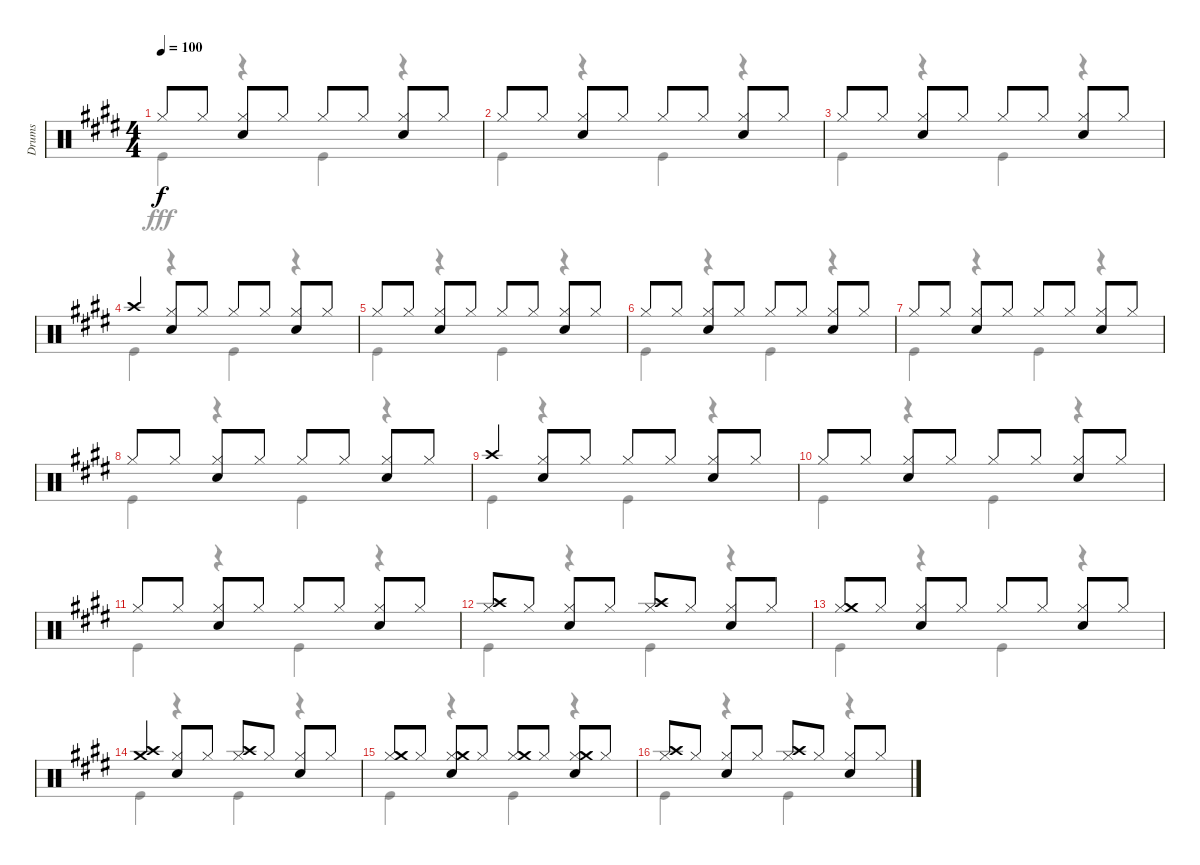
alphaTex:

\track ("Drums" "Drums") {instrument percussion}
\staff {score}
\articulation defaults
\voice
\ts (4 4)
\tempo 100
\clef neutral
\ks e "Hi-Hat (closed)".8{dy f} "Hi-Hat (closed)".8
("Hi-Hat (closed)" "Snare (hit) 2").8 "Hi-Hat (closed)".8 "Hi-Hat (closed)".8 "Hi-Hat (closed)".8 ("Hi-Hat (closed)" "Snare (hit) 2").8 "Hi-Hat (closed)".8 |
"Hi-Hat (closed)".8 "Hi-Hat (closed)".8 ("Hi-Hat (closed)" "Snare (hit) 2").8 "Hi-Hat (closed)".8 "Hi-Hat (closed)".8 "Hi-Hat (closed)".8 ("Hi-Hat (closed)" "Snare (hit) 2").8 "Hi-Hat (closed)".8 |
"Hi-Hat (closed)".8 "Hi-Hat (closed)".8 ("Hi-Hat (closed)" "Snare (hit) 2").8 "Hi-Hat (closed)".8 "Hi-Hat (closed)".8 "Hi-Hat (closed)".8 ("Hi-Hat (closed)" "Snare (hit) 2").8 "Hi-Hat (closed)".8 |
"Crash high (hit)".4 ("Hi-Hat (closed)" "Snare (hit) 2").8 "Hi-Hat (closed)".8 "Hi-Hat (closed)".8 "Hi-Hat (closed)".8 ("Hi-Hat (closed)" "Snare (hit) 2").8 "Hi-Hat (closed)".8 |
"Hi-Hat (closed)".8 "Hi-Hat (closed)".8 ("Hi-Hat (closed)" "Snare (hit) 2").8 "Hi-Hat (closed)".8 "Hi-Hat (closed)".8 "Hi-Hat (closed)".8 ("Hi-Hat (closed)" "Snare (hit) 2").8 "Hi-Hat (closed)".8 |
"Hi-Hat (closed)".8 "Hi-Hat (closed)".8 ("Hi-Hat (closed)" "Snare (hit) 2").8 "Hi-Hat (closed)".8 "Hi-Hat (closed)".8 "Hi-Hat (closed)".8 ("Hi-Hat (closed)" "Snare (hit) 2").8 "Hi-Hat (closed)".8 |
"Hi-Hat (closed)".8 "Hi-Hat (closed)".8 ("Hi-Hat (closed)" "Snare (hit) 2").8 "Hi-Hat (closed)".8 "Hi-Hat (closed)".8 "Hi-Hat (closed)".8 ("Hi-Hat (closed)" "Snare (hit) 2").8 "Hi-Hat (closed)".8 |
"Hi-Hat (closed)".8 "Hi-Hat (closed)".8 ("Hi-Hat (closed)" "Snare (hit) 2").8 "Hi-Hat (closed)".8 "Hi-Hat (closed)".8 "Hi-Hat (closed)".8 ("Hi-Hat (closed)" "Snare (hit) 2").8 "Hi-Hat (closed)".8 |
"Crash high (hit)".4 ("Hi-Hat (closed)" "Snare (hit) 2").8 "Hi-Hat (closed)".8 "Hi-Hat (closed)".8 "Hi-Hat (closed)".8 ("Hi-Hat (closed)" "Snare (hit) 2").8 "Hi-Hat (closed)".8 |
"Hi-Hat (closed)".8 "Hi-Hat (closed)".8 ("Hi-Hat (closed)" "Snare (hit) 2").8 "Hi-Hat (closed)".8 "Hi-Hat (closed)".8 "Hi-Hat (closed)".8 ("Hi-Hat (closed)" "Snare (hit) 2").8 "Hi-Hat (closed)".8 |
"Hi-Hat (closed)".8 "Hi-Hat (closed)".8 ("Hi-Hat (closed)" "Snare (hit) 2").8 "Hi-Hat (closed)".8 "Hi-Hat (closed)".8 "Hi-Hat (closed)".8 ("Hi-Hat (closed)" "Snare (hit) 2").8 "Hi-Hat (closed)".8 |
("Hi-Hat (closed)" "Crash high (hit)").8 "Hi-Hat (closed)".8 ("Hi-Hat (closed)" "Snare (hit) 2").8 "Hi-Hat (closed)".8 ("Hi-Hat (closed)" "Crash high (hit)").8 "Hi-Hat (closed)".8 ("Hi-Hat (closed)" "Snare (hit) 2").8 "Hi-Hat (closed)".8 |
("Hi-Hat (closed)" "Crash medium (hit)").8 "Hi-Hat (closed)".8 ("Hi-Hat (closed)" "Snare (hit) 2").8 "Hi-Hat (closed)".8 "Hi-Hat (closed)".8 "Hi-Hat (closed)".8 ("Hi-Hat (closed)" "Snare (hit) 2").8 "Hi-Hat (closed)".8 |
("Crash high (hit)" "Crash medium (hit)").4 ("Hi-Hat (closed)" "Snare (hit) 2").8 "Hi-Hat (closed)".8 ("Hi-Hat (closed)" "Crash high (hit)").8 "Hi-Hat (closed)".8 ("Hi-Hat (closed)" "Snare (hit) 2").8 "Hi-Hat (closed)".8 |
("Hi-Hat (closed)" "Crash medium (hit)").8 "Hi-Hat (closed)".8 ("Hi-Hat (closed)" "Snare (hit) 2" "Crash medium (hit)").8 "Hi-Hat (closed)".8 ("Hi-Hat (closed)" "Crash medium (hit)").8 "Hi-Hat (closed)".8 ("Hi-Hat (closed)" "Snare (hit) 2" "Crash medium (hit)").8 "Hi-Hat (closed)".8 |
("Hi-Hat (closed)" "Crash high (hit)").8 "Hi-Hat (closed)".8 ("Hi-Hat (closed)" "Snare (hit) 2").8 "Hi-Hat (closed)".8 ("Hi-Hat (closed)" "Crash high (hit)").8 "Hi-Hat (closed)".8 ("Hi-Hat (closed)" "Snare (hit) 2").8 "Hi-Hat (closed)".8
\voice
\clef neutral
\ottava regular
\simile none
\ks e "Kick (hit)".4{dy fff}
r.4 "Kick (hit)".4 r.4 |
"Kick (hit)".4 r.4 "Kick (hit)".4 r.4 |
"Kick (hit)".4 r.4 "Kick (hit)".4 r.4 |
"Kick (hit)".4 r.4 "Kick (hit)".4 r.4 |
"Kick (hit)".4 r.4 "Kick (hit)".4 r.4 |
"Kick (hit)".4 r.4 "Kick (hit)".4 r.4 |
"Kick (hit)".4 r.4 "Kick (hit)".4 r.4 |
"Kick (hit)".4 r.4 "Kick (hit)".4 r.4 |
"Kick (hit)".4 r.4 "Kick (hit)".4 r.4 |
"Kick (hit)".4 r.4 "Kick (hit)".4 r.4 |
"Kick (hit)".4 r.4 "Kick (hit)".4 r.4 |
"Kick (hit)".4 r.4 "Kick (hit)".4 r.4 |
"Kick (hit)".4 r.4 "Kick (hit)".4 r.4 |
"Kick (hit)".4 r.4 "Kick (hit)".4 r.4 |
"Kick (hit)".4 r.4 "Kick (hit)".4 r.4 |
"Kick (hit)".4 r.4 "Kick (hit)".4 r.4
